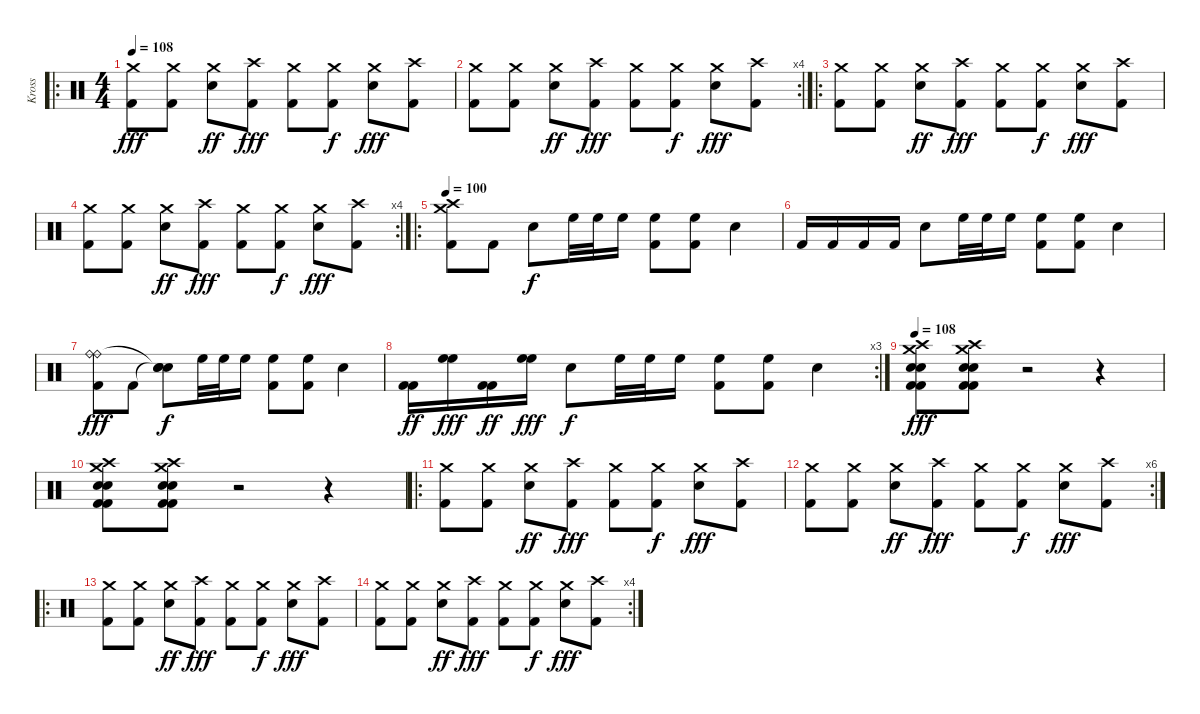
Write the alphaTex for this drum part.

\track ("Kross" "Kross") {instrument percussion}
\staff {score}
\articulation defaults
\ro
\ts (4 4)
\tempo 108
\clef neutral
\ks c
("Crash medium (hit)" "Kick (hit) 2").8{dy fff} ("Crash medium (hit)" "Kick (hit) 2").8 ("Crash medium (hit)" "Electric Snare (hit)").8{dy ff} ("Crash high (hit)" "Kick (hit) 2").8{dy fff} ("Crash medium (hit)" "Kick (hit) 2").8 ("Crash medium (hit)" "Kick (hit) 2").8{dy f} ("Crash medium (hit)" "Electric Snare (hit)").8{dy fff} ("Crash high (hit)" "Kick (hit) 2").8 |
\rc 4
("Crash medium (hit)" "Kick (hit) 2").8 ("Crash medium (hit)" "Kick (hit) 2").8 ("Crash medium (hit)" "Electric Snare (hit)").8{dy ff} ("Crash high (hit)" "Kick (hit) 2").8{dy fff} ("Crash medium (hit)" "Kick (hit) 2").8 ("Crash medium (hit)" "Kick (hit) 2").8{dy f} ("Crash medium (hit)" "Electric Snare (hit)").8{dy fff} ("Crash high (hit)" "Kick (hit) 2").8 |
\ro
("Crash medium (hit)" "Kick (hit) 2").8 ("Crash medium (hit)" "Kick (hit) 2").8 ("Crash medium (hit)" "Electric Snare (hit)").8{dy ff} ("Crash high (hit)" "Kick (hit) 2").8{dy fff} ("Crash medium (hit)" "Kick (hit) 2").8 ("Crash medium (hit)" "Kick (hit) 2").8{dy f} ("Crash medium (hit)" "Electric Snare (hit)").8{dy fff} ("Crash high (hit)" "Kick (hit) 2").8 |
\rc 4
("Crash medium (hit)" "Kick (hit) 2").8 ("Crash medium (hit)" "Kick (hit) 2").8 ("Crash medium (hit)" "Electric Snare (hit)").8{dy ff} ("Crash high (hit)" "Kick (hit) 2").8{dy fff} ("Crash medium (hit)" "Kick (hit) 2").8 ("Crash medium (hit)" "Kick (hit) 2").8{dy f} ("Crash medium (hit)" "Electric Snare (hit)").8{dy fff} ("Crash high (hit)" "Kick (hit) 2").8 |
\ro
\tempo 100
("Crash high (hit)" "Crash medium (hit)" "Kick (hit) 2").8 "Kick (hit) 2".8 "Snare (hit) 2".8{dy f} "High Floor Tom (hit)".32 "High Floor Tom (hit)".32 "High Floor Tom (hit)".16 ("High Floor Tom (hit)" "Kick (hit) 2").8 ("High Floor Tom (hit)" "Kick (hit) 2").8 "Snare (hit) 2".4 |
"Kick (hit) 2".16 "Kick (hit) 2".16 "Kick (hit) 2".16 "Kick (hit) 2".16 "Snare (hit) 2".8 "High Floor Tom (hit)".32 "High Floor Tom (hit)".32 "High Floor Tom (hit)".16 ("High Floor Tom (hit)" "Kick (hit) 2").8 ("High Floor Tom (hit)" "Kick (hit) 2").8 "Snare (hit) 2".4 |
("Ride (bell)" "Ride (bell)" "Kick (hit) 2").8{dy fff} "Kick (hit) 2".8 ("Snare (hit)"{t} "Snare (hit)"{t} "Snare (hit) 2").8{dy f} "High Floor Tom (hit)".32 "High Floor Tom (hit)".32 "High Floor Tom (hit)".16 ("High Floor Tom (hit)" "Kick (hit) 2").8 ("High Floor Tom (hit)" "Kick (hit) 2").8 "Snare (hit) 2".4 |
\rc 3
("Kick (hit) 2" "Kick (hit) 2").16{dy ff} ("High Floor Tom (hit)" "High Floor Tom (hit)").16{dy fff} ("Kick (hit) 2" "Kick (hit) 2").16{dy ff} ("High Floor Tom (hit)" "High Floor Tom (hit)").16{dy fff} "Snare (hit) 2".8{dy f} "High Floor Tom (hit)".32 "High Floor Tom (hit)".32 "High Floor Tom (hit)".16 ("High Floor Tom (hit)" "Kick (hit) 2").8 ("High Floor Tom (hit)" "Kick (hit) 2").8 "Snare (hit) 2".4 |
\tempo 108
("Crash high (hit)" "Crash medium (hit)" "Snare (hit) 2" "Snare (hit) 2" "Kick (hit) 2" "Kick (hit) 2").8{dy fff} ("Crash high (hit)" "Crash medium (hit)" "Snare (hit) 2" "Snare (hit) 2" "Kick (hit) 2" "Kick (hit) 2").8 r.2 r.4 |
("Crash high (hit)" "Crash medium (hit)" "Snare (hit) 2" "Snare (hit) 2" "Kick (hit) 2" "Kick (hit) 2").8 ("Crash high (hit)" "Crash medium (hit)" "Snare (hit) 2" "Snare (hit) 2" "Kick (hit) 2" "Kick (hit) 2").8 r.2 r.4 |
\ro
("Crash medium (hit)" "Kick (hit) 2").8 ("Crash medium (hit)" "Kick (hit) 2").8 ("Crash medium (hit)" "Electric Snare (hit)").8{dy ff} ("Crash high (hit)" "Kick (hit) 2").8{dy fff} ("Crash medium (hit)" "Kick (hit) 2").8 ("Crash medium (hit)" "Kick (hit) 2").8{dy f} ("Crash medium (hit)" "Electric Snare (hit)").8{dy fff} ("Crash high (hit)" "Kick (hit) 2").8 |
\rc 6
("Crash medium (hit)" "Kick (hit) 2").8 ("Crash medium (hit)" "Kick (hit) 2").8 ("Crash medium (hit)" "Electric Snare (hit)").8{dy ff} ("Crash high (hit)" "Kick (hit) 2").8{dy fff} ("Crash medium (hit)" "Kick (hit) 2").8 ("Crash medium (hit)" "Kick (hit) 2").8{dy f} ("Crash medium (hit)" "Electric Snare (hit)").8{dy fff} ("Crash high (hit)" "Kick (hit) 2").8 |
\ro
("Crash medium (hit)" "Kick (hit) 2").8 ("Crash medium (hit)" "Kick (hit) 2").8 ("Crash medium (hit)" "Electric Snare (hit)").8{dy ff} ("Crash high (hit)" "Kick (hit) 2").8{dy fff} ("Crash medium (hit)" "Kick (hit) 2").8 ("Crash medium (hit)" "Kick (hit) 2").8{dy f} ("Crash medium (hit)" "Electric Snare (hit)").8{dy fff} ("Crash high (hit)" "Kick (hit) 2").8 |
\rc 4
("Crash medium (hit)" "Kick (hit) 2").8 ("Crash medium (hit)" "Kick (hit) 2").8 ("Crash medium (hit)" "Electric Snare (hit)").8{dy ff} ("Crash high (hit)" "Kick (hit) 2").8{dy fff} ("Crash medium (hit)" "Kick (hit) 2").8 ("Crash medium (hit)" "Kick (hit) 2").8{dy f} ("Crash medium (hit)" "Electric Snare (hit)").8{dy fff} ("Crash high (hit)" "Kick (hit) 2").8
